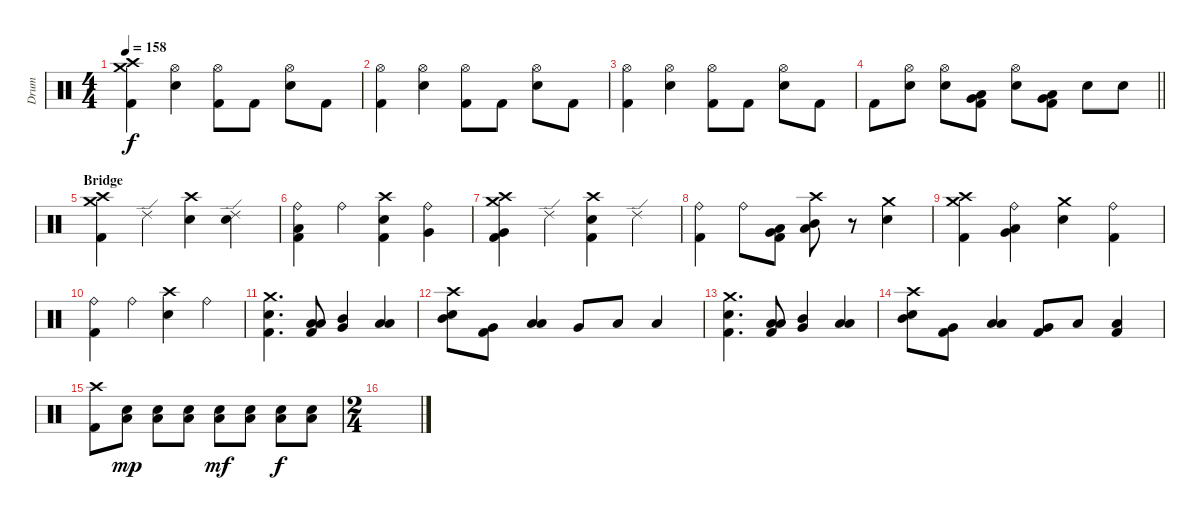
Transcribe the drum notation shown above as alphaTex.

\track ("Drum" "Drum") {instrument percussion}
\staff {score}
\articulation defaults
\ts (4 4)
\tempo 158
\clef neutral
\ks c
("Crash high (hit)" "Crash medium (hit)" "Kick (hit) 2").4{dy f} ("Hi-Hat (open)" "Electric Snare (hit)").4 ("Hi-Hat (open)" "Kick (hit) 2").8 "Kick (hit) 2".8 ("Hi-Hat (open)" "Electric Snare (hit)").8 "Kick (hit) 2".8 |
("Hi-Hat (open)" "Kick (hit) 2").4 ("Hi-Hat (open)" "Electric Snare (hit)").4 ("Hi-Hat (open)" "Kick (hit) 2").8 "Kick (hit) 2".8 ("Hi-Hat (open)" "Electric Snare (hit)").8 "Kick (hit) 2".8 |
("Hi-Hat (open)" "Kick (hit) 2").4 ("Hi-Hat (open)" "Electric Snare (hit)").4 ("Hi-Hat (open)" "Kick (hit) 2").8 "Kick (hit) 2".8 ("Hi-Hat (open)" "Electric Snare (hit)").8 "Kick (hit) 2".8 |
\barLineRight lightlight "Kick (hit) 2".8
("Hi-Hat (open)" "Electric Snare (hit)").8 ("Hi-Hat (open)" "Electric Snare (hit)").8 ("Very Low Tom (hit)" "Low Floor Tom (hit)" "Kick (hit) 2").8 ("Hi-Hat (open)" "Electric Snare (hit)").8 ("Very Low Tom (hit)" "Low Floor Tom (hit)" "Kick (hit) 2").8 "Electric Snare (hit)".8 "Electric Snare (hit)".8 |
\section ("" "Bridge")
("Crash high (hit)" "Crash medium (hit)" "Kick (hit) 2").4 "Ride (edge) 2".4 ("Crash high (hit)" "Electric Snare (hit)").4 ("Ride (edge) 2" "Electric Snare (hit)").4 |
("Ride (bell)" "Low Floor Tom (hit)" "Kick (hit) 2").4 "Ride (bell)".4 ("Crash high (hit)" "Electric Snare (hit)" "Kick (hit) 2").4 ("Ride (bell)" "Very Low Tom (hit)").4 |
("Crash high (hit)" "Crash medium (hit)" "Very Low Tom (hit)" "Kick (hit) 2").4 "Ride (edge) 2".4 ("Crash high (hit)" "Electric Snare (hit)" "Kick (hit) 2").4 "Ride (edge) 2".4 |
("Ride (bell)" "Kick (hit) 2").4 "Ride (bell)".8 ("Low Tom (hit)" "Very Low Tom (hit)" "Kick (hit) 2").8 ("Crash high (hit)" "Low Floor Tom (hit)" "Mid Tom (hit)").8 r.8 ("Crash medium (hit)" "Electric Snare (hit)").4 |
("Crash high (hit)" "Crash medium (hit)" "Kick (hit) 2").4 ("Ride (bell)" "Very Low Tom (hit)" "Low Floor Tom (hit)").4 ("Crash medium (hit)" "Electric Snare (hit)").4 ("Ride (bell)" "Kick (hit) 2").4 |
("Ride (bell)" "Kick (hit) 2").4 "Ride (bell)".4 ("Crash high (hit)" "Electric Snare (hit)").4 "Ride (bell)".4 |
("Crash medium (hit)" "Electric Snare (hit)" "Kick (hit) 2").4{d} ("Low Floor Tom (hit)" "Low Tom (hit)" "Kick (hit) 2").8 ("Mid Tom (hit)" "Very Low Tom (hit)").4 ("Low Floor Tom (hit)" "Low Tom (hit)").4 |
("Crash high (hit)" "Mid Tom (hit)" "Electric Snare (hit)").8 ("Very Low Tom (hit)" "Kick (hit) 2").8 ("Low Floor Tom (hit)" "Low Tom (hit)").4 "Very Low Tom (hit)".8 "Low Floor Tom (hit)".8 "Low Floor Tom (hit)".4 |
("Crash medium (hit)" "Electric Snare (hit)" "Kick (hit) 2").4{d} ("Low Floor Tom (hit)" "Low Tom (hit)" "Kick (hit) 2").8 ("Mid Tom (hit)" "Very Low Tom (hit)").4 ("Low Floor Tom (hit)" "Low Tom (hit)").4 |
("Crash high (hit)" "Mid Tom (hit)" "Electric Snare (hit)").8 ("Very Low Tom (hit)" "Kick (hit) 2").8 ("Low Floor Tom (hit)" "Low Tom (hit)").4 ("Very Low Tom (hit)" "Kick (hit) 2").8 "Low Floor Tom (hit)".8 ("Low Floor Tom (hit)" "Kick (hit) 2").4 |
("Crash high (hit)" "Kick (hit) 2").8 ("Low Floor Tom (hit)" "Electric Snare (hit)").8{dy mp} ("Low Floor Tom (hit)" "Electric Snare (hit)").8 ("Low Floor Tom (hit)" "Electric Snare (hit)").8 ("Low Floor Tom (hit)" "Electric Snare (hit)").8{dy mf} ("Low Floor Tom (hit)" "Electric Snare (hit)").8 ("Low Floor Tom (hit)" "Electric Snare (hit)").8{dy f} ("Low Floor Tom (hit)" "Electric Snare (hit)").8 |
\ts (2 4)
